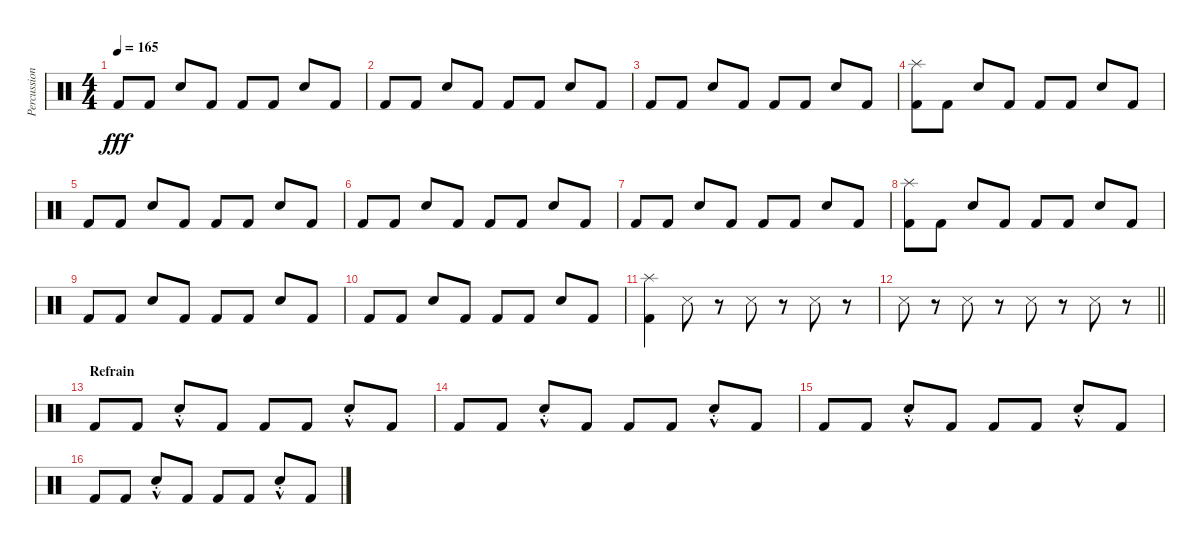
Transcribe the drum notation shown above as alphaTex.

\track ("Percussions" "Percussion") {instrument percussion}
\staff {score}
\articulation defaults
\ts (4 4)
\tempo 165
\clef neutral
\ks c "Kick (hit) 2".8{dy fff} "Kick (hit) 2".8 "Electric Snare (hit)".8 "Kick (hit) 2".8 "Kick (hit) 2".8 "Kick (hit) 2".8 "Electric Snare (hit)".8 "Kick (hit) 2".8
|
"Kick (hit) 2".8 "Kick (hit) 2".8 "Electric Snare (hit)".8 "Kick (hit) 2".8 "Kick (hit) 2".8 "Kick (hit) 2".8 "Electric Snare (hit)".8 "Kick (hit) 2".8 |
"Kick (hit) 2".8 "Kick (hit) 2".8 "Electric Snare (hit)".8 "Kick (hit) 2".8 "Kick (hit) 2".8 "Kick (hit) 2".8 "Electric Snare (hit)".8 "Kick (hit) 2".8 |
("Splash (hit)" "Kick (hit) 2").8 "Kick (hit) 2".8 "Electric Snare (hit)".8 "Kick (hit) 2".8 "Kick (hit) 2".8 "Kick (hit) 2".8 "Electric Snare (hit)".8 "Kick (hit) 2".8 |
"Kick (hit) 2".8 "Kick (hit) 2".8 "Electric Snare (hit)".8 "Kick (hit) 2".8 "Kick (hit) 2".8 "Kick (hit) 2".8 "Electric Snare (hit)".8 "Kick (hit) 2".8 |
"Kick (hit) 2".8 "Kick (hit) 2".8 "Electric Snare (hit)".8 "Kick (hit) 2".8 "Kick (hit) 2".8 "Kick (hit) 2".8 "Electric Snare (hit)".8 "Kick (hit) 2".8 |
"Kick (hit) 2".8 "Kick (hit) 2".8 "Electric Snare (hit)".8 "Kick (hit) 2".8 "Kick (hit) 2".8 "Kick (hit) 2".8 "Electric Snare (hit)".8 "Kick (hit) 2".8 |
("Splash (hit)" "Kick (hit) 2").8 "Kick (hit) 2".8 "Electric Snare (hit)".8 "Kick (hit) 2".8 "Kick (hit) 2".8 "Kick (hit) 2".8 "Electric Snare (hit)".8 "Kick (hit) 2".8 |
"Kick (hit) 2".8 "Kick (hit) 2".8 "Electric Snare (hit)".8 "Kick (hit) 2".8 "Kick (hit) 2".8 "Kick (hit) 2".8 "Electric Snare (hit)".8 "Kick (hit) 2".8 |
"Kick (hit) 2".8 "Kick (hit) 2".8 "Electric Snare (hit)".8 "Kick (hit) 2".8 "Kick (hit) 2".8 "Kick (hit) 2".8 "Electric Snare (hit)".8 "Kick (hit) 2".8 |
("Splash (hit)" "Kick (hit) 2").4 "Snare (side stick) 3".8 r.8 "Snare (side stick) 3".8 r.8 "Snare (side stick) 3".8 r.8 |
\barLineRight lightlight "Snare (side stick) 3".8
r.8 "Snare (side stick) 3".8 r.8 "Snare (side stick) 3".8 r.8 "Snare (side stick) 3".8 r.8 |
\section ("" "Refrain")
"Kick (hit) 2".8 "Kick (hit) 2".8 "Electric Snare (hit)"{hac st}.8 "Kick (hit) 2".8 "Kick (hit) 2".8 "Kick (hit) 2".8 "Electric Snare (hit)"{hac st}.8 "Kick (hit) 2".8 |
"Kick (hit) 2".8 "Kick (hit) 2".8 "Electric Snare (hit)"{hac st}.8 "Kick (hit) 2".8 "Kick (hit) 2".8 "Kick (hit) 2".8 "Electric Snare (hit)"{hac st}.8 "Kick (hit) 2".8 |
"Kick (hit) 2".8 "Kick (hit) 2".8 "Electric Snare (hit)"{hac st}.8 "Kick (hit) 2".8 "Kick (hit) 2".8 "Kick (hit) 2".8 "Electric Snare (hit)"{hac st}.8 "Kick (hit) 2".8 |
"Kick (hit) 2".8 "Kick (hit) 2".8 "Electric Snare (hit)"{hac st}.8 "Kick (hit) 2".8 "Kick (hit) 2".8 "Kick (hit) 2".8 "Electric Snare (hit)"{hac st}.8 "Kick (hit) 2".8
